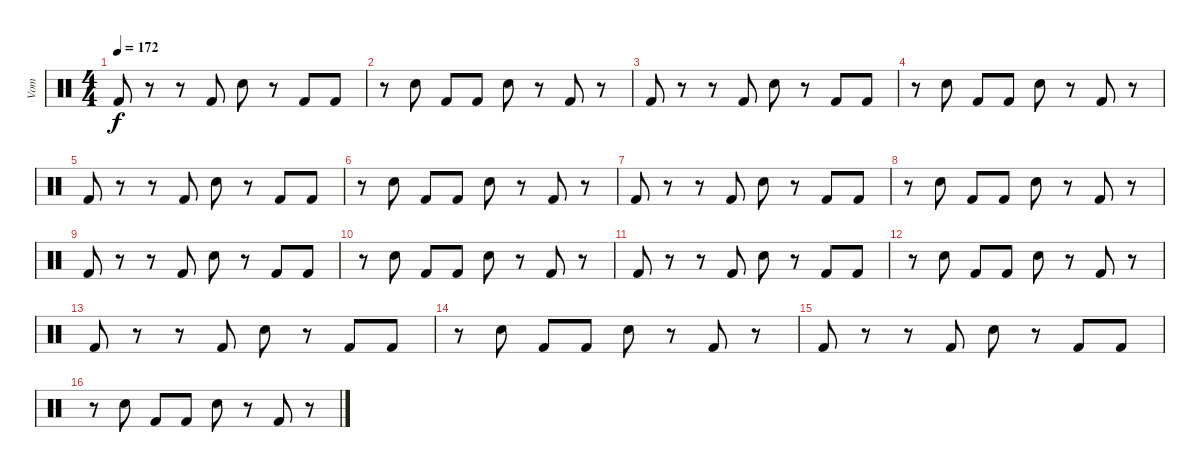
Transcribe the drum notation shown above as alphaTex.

\track ("Vom" "Vom") {instrument percussion}
\staff {score}
\articulation defaults
\ts (4 4)
\tempo 172
\clef neutral
\ks c "Kick (hit) 2".8{dy f}
r.8 r.8 "Kick (hit) 2".8 "Snare (hit) 2".8 r.8 "Kick (hit) 2".8 "Kick (hit) 2".8 |
r.8 "Snare (hit) 2".8 "Kick (hit) 2".8 "Kick (hit) 2".8 "Snare (hit) 2".8 r.8 "Kick (hit) 2".8 r.8 |
"Kick (hit) 2".8 r.8 r.8 "Kick (hit) 2".8 "Snare (hit) 2".8 r.8 "Kick (hit) 2".8 "Kick (hit) 2".8 |
r.8 "Snare (hit) 2".8 "Kick (hit) 2".8 "Kick (hit) 2".8 "Snare (hit) 2".8 r.8 "Kick (hit) 2".8 r.8 |
"Kick (hit) 2".8 r.8 r.8 "Kick (hit) 2".8 "Snare (hit) 2".8 r.8 "Kick (hit) 2".8 "Kick (hit) 2".8 |
r.8 "Snare (hit) 2".8 "Kick (hit) 2".8 "Kick (hit) 2".8 "Snare (hit) 2".8 r.8 "Kick (hit) 2".8 r.8 |
"Kick (hit) 2".8 r.8 r.8 "Kick (hit) 2".8 "Snare (hit) 2".8 r.8 "Kick (hit) 2".8 "Kick (hit) 2".8 |
r.8 "Snare (hit) 2".8 "Kick (hit) 2".8 "Kick (hit) 2".8 "Snare (hit) 2".8 r.8 "Kick (hit) 2".8 r.8 |
"Kick (hit) 2".8 r.8 r.8 "Kick (hit) 2".8 "Snare (hit) 2".8 r.8 "Kick (hit) 2".8 "Kick (hit) 2".8 |
r.8 "Snare (hit) 2".8 "Kick (hit) 2".8 "Kick (hit) 2".8 "Snare (hit) 2".8 r.8 "Kick (hit) 2".8 r.8 |
"Kick (hit) 2".8 r.8 r.8 "Kick (hit) 2".8 "Snare (hit) 2".8 r.8 "Kick (hit) 2".8 "Kick (hit) 2".8 |
r.8 "Snare (hit) 2".8 "Kick (hit) 2".8 "Kick (hit) 2".8 "Snare (hit) 2".8 r.8 "Kick (hit) 2".8 r.8 |
"Kick (hit) 2".8 r.8 r.8 "Kick (hit) 2".8 "Snare (hit) 2".8 r.8 "Kick (hit) 2".8 "Kick (hit) 2".8 |
r.8 "Snare (hit) 2".8 "Kick (hit) 2".8 "Kick (hit) 2".8 "Snare (hit) 2".8 r.8 "Kick (hit) 2".8 r.8 |
"Kick (hit) 2".8 r.8 r.8 "Kick (hit) 2".8 "Snare (hit) 2".8 r.8 "Kick (hit) 2".8 "Kick (hit) 2".8 |
r.8 "Snare (hit) 2".8 "Kick (hit) 2".8 "Kick (hit) 2".8 "Snare (hit) 2".8 r.8 "Kick (hit) 2".8 r.8
